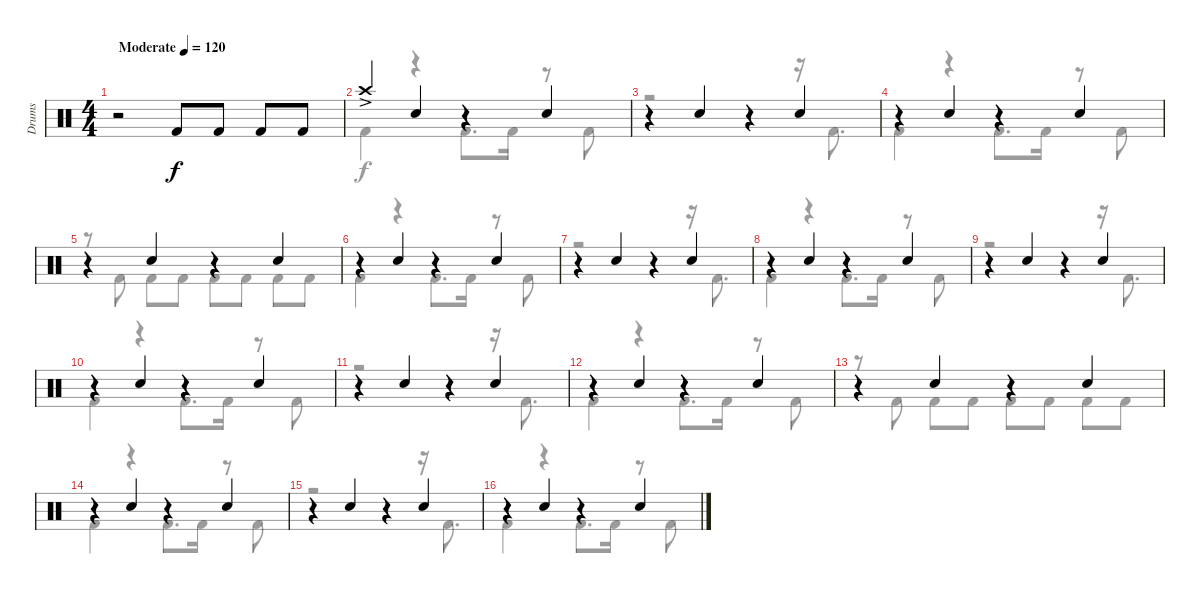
\track ("Drums" "Drums") {instrument percussion}
\staff {score}
\articulation defaults
\voice
\ts (4 4)
\tempo (120 "Moderate")
\clef neutral
\ks c
r.2{dy f} "Kick (hit) 2".8 "Kick (hit) 2".8 "Kick (hit) 2".8 "Kick (hit) 2".8 |
"Crash high (hit)"{ac}.4 "Electric Snare (hit)".4 r.4 "Electric Snare (hit)".4 |
r.4 "Electric Snare (hit)".4 r.4 "Electric Snare (hit)".4 |
r.4 "Electric Snare (hit)".4 r.4 "Electric Snare (hit)".4 |
r.4 "Electric Snare (hit)".4 r.4 "Electric Snare (hit)".4 |
r.4 "Electric Snare (hit)".4 r.4 "Electric Snare (hit)".4 |
r.4 "Electric Snare (hit)".4 r.4 "Electric Snare (hit)".4 |
r.4 "Electric Snare (hit)".4 r.4 "Electric Snare (hit)".4 |
r.4 "Electric Snare (hit)".4 r.4 "Electric Snare (hit)".4 |
r.4 "Electric Snare (hit)".4 r.4 "Electric Snare (hit)".4 |
r.4 "Electric Snare (hit)".4 r.4 "Electric Snare (hit)".4 |
r.4 "Electric Snare (hit)".4 r.4 "Electric Snare (hit)".4 |
r.4 "Electric Snare (hit)".4 r.4 "Electric Snare (hit)".4 |
r.4 "Electric Snare (hit)".4 r.4 "Electric Snare (hit)".4 |
r.4 "Electric Snare (hit)".4 r.4 "Electric Snare (hit)".4 |
r.4 "Electric Snare (hit)".4 r.4 "Electric Snare (hit)".4
\voice
\clef neutral
\ottava regular
\simile none
\ks c
|
"Kick (hit) 2".4 r.4 "Kick (hit) 2".8{d} "Kick (hit) 2".16 r.8 "Kick (hit) 2".8 |
r.2 r.4 r.16 "Kick (hit) 2".8{d} |
"Kick (hit) 2".4 r.4 "Kick (hit) 2".8{d} "Kick (hit) 2".16 r.8 "Kick (hit) 2".8 |
r.8 "Kick (hit) 2".8 "Kick (hit) 2".8 "Kick (hit) 2".8 "Kick (hit) 2".8 "Kick (hit) 2".8 "Kick (hit) 2".8 "Kick (hit) 2".8 |
"Kick (hit) 2".4 r.4 "Kick (hit) 2".8{d} "Kick (hit) 2".16 r.8 "Kick (hit) 2".8 |
r.2 r.4 r.16 "Kick (hit) 2".8{d} |
"Kick (hit) 2".4 r.4 "Kick (hit) 2".8{d} "Kick (hit) 2".16 r.8 "Kick (hit) 2".8 |
r.2 r.4 r.16 "Kick (hit) 2".8{d} |
"Kick (hit) 2".4 r.4 "Kick (hit) 2".8{d} "Kick (hit) 2".16 r.8 "Kick (hit) 2".8 |
r.2 r.4 r.16 "Kick (hit) 2".8{d} |
"Kick (hit) 2".4 r.4 "Kick (hit) 2".8{d} "Kick (hit) 2".16 r.8 "Kick (hit) 2".8 |
r.8 "Kick (hit) 2".8 "Kick (hit) 2".8 "Kick (hit) 2".8 "Kick (hit) 2".8 "Kick (hit) 2".8 "Kick (hit) 2".8 "Kick (hit) 2".8 |
"Kick (hit) 2".4 r.4 "Kick (hit) 2".8{d} "Kick (hit) 2".16 r.8 "Kick (hit) 2".8 |
r.2 r.4 r.16 "Kick (hit) 2".8{d} |
"Kick (hit) 2".4 r.4 "Kick (hit) 2".8{d} "Kick (hit) 2".16 r.8 "Kick (hit) 2".8
